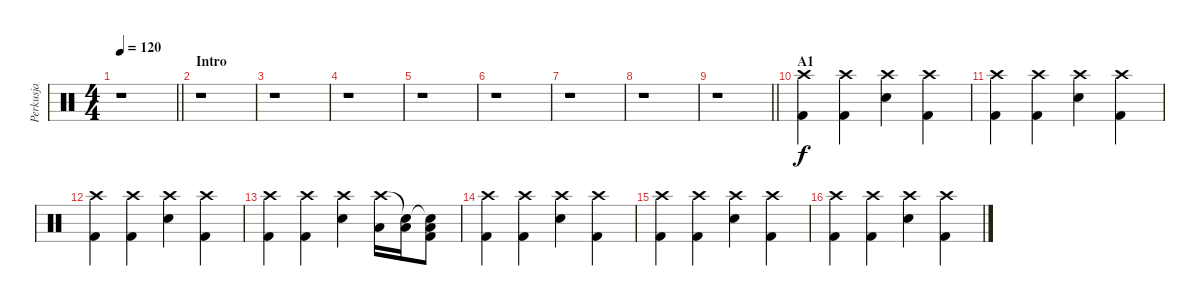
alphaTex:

\track ("Perkusja" "Perkusja") {instrument percussion}
\staff {score}
\articulation defaults
\ts (4 4)
\tempo 120
\clef neutral
\barLineRight lightlight
\ks c
r.1{dy f} |
\section ("" "Intro")
r.1 |
r.1 |
r.1 |
r.1 |
r.1 |
r.1 |
r.1 |
\barLineRight lightlight
r.1 |
\section ("" "A1")
("Crash high (hit)" "Kick (hit) 2").4 ("Crash high (hit)" "Kick (hit) 2").4 ("Crash high (hit)" "Electric Snare (hit)").4 ("Crash high (hit)" "Kick (hit) 2").4 |
("Crash high (hit)" "Kick (hit) 2").4 ("Crash high (hit)" "Kick (hit) 2").4 ("Crash high (hit)" "Electric Snare (hit)").4 ("Crash high (hit)" "Kick (hit) 2").4 |
("Crash high (hit)" "Kick (hit) 2").4 ("Crash high (hit)" "Kick (hit) 2").4 ("Crash high (hit)" "Electric Snare (hit)").4 ("Crash high (hit)" "Kick (hit) 2").4 |
("Crash high (hit)" "Kick (hit) 2").4 ("Crash high (hit)" "Kick (hit) 2").4 ("Crash high (hit)" "Electric Snare (hit)").4 ("Crash high (hit)" "Low Tom (hit)").16 ("Snare (hit)"{t} "Low Tom (hit)").16 ("Snare (hit)"{t} "Low Floor Tom (hit)" "Kick (hit) 2").8 |
("Crash high (hit)" "Kick (hit) 2").4 ("Crash high (hit)" "Kick (hit) 2").4 ("Crash high (hit)" "Electric Snare (hit)").4 ("Crash high (hit)" "Kick (hit) 2").4 |
("Crash high (hit)" "Kick (hit) 2").4 ("Crash high (hit)" "Kick (hit) 2").4 ("Crash high (hit)" "Electric Snare (hit)").4 ("Crash high (hit)" "Kick (hit) 2").4 |
("Crash high (hit)" "Kick (hit) 2").4 ("Crash high (hit)" "Kick (hit) 2").4 ("Crash high (hit)" "Electric Snare (hit)").4 ("Crash high (hit)" "Kick (hit) 2").4
